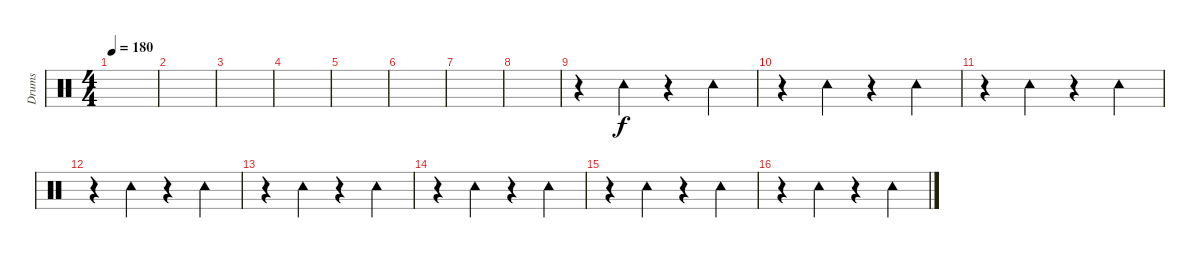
\track ("Drums" "Drums") {instrument percussion}
\staff {score}
\articulation defaults
\ts (4 4)
\tempo 180
\clef neutral
\ks c
|
|
|
|
|
|
|
|
r.4 "Tambourine (hit)".4 r.4 "Tambourine (hit)".4 |
r.4 "Tambourine (hit)".4 r.4 "Tambourine (hit)".4 |
r.4 "Tambourine (hit)".4 r.4 "Tambourine (hit)".4 |
r.4 "Tambourine (hit)".4 r.4 "Tambourine (hit)".4 |
r.4 "Tambourine (hit)".4 r.4 "Tambourine (hit)".4 |
r.4 "Tambourine (hit)".4 r.4 "Tambourine (hit)".4 |
r.4 "Tambourine (hit)".4 r.4 "Tambourine (hit)".4 |
r.4 "Tambourine (hit)".4 r.4 "Tambourine (hit)".4
